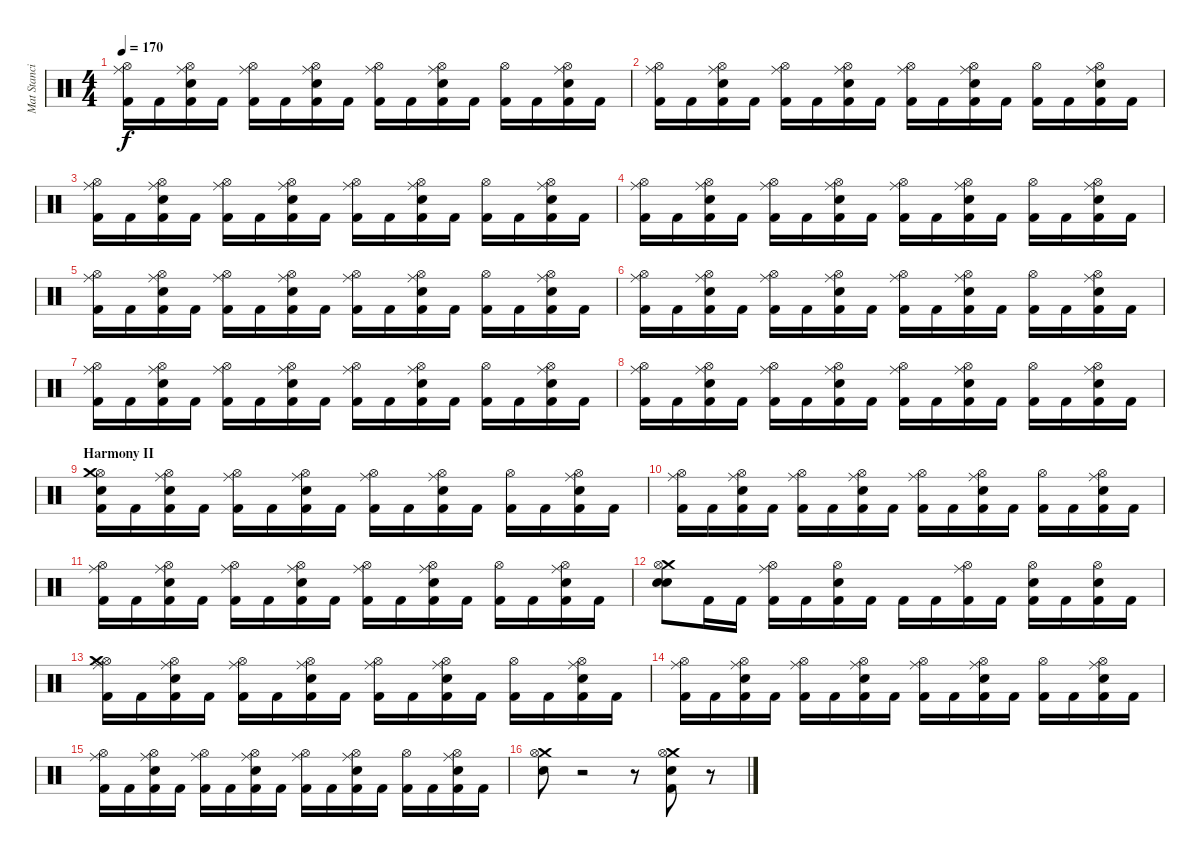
\track ("Mat Stancioiu" "Mat Stanci") {instrument percussion}
\staff {score}
\articulation defaults
\ts (4 4)
\tempo 170
\clef neutral
\ks c
("Hi-Hat (open)" "Kick (hit) 2" "Ride (middle)").16{dy f} "Kick (hit) 2".16 ("Electric Snare (hit)" "Hi-Hat (open)" "Kick (hit) 2" "Ride (middle)").16 "Kick (hit) 2".16 ("Hi-Hat (open)" "Kick (hit) 2" "Ride (middle)").16 "Kick (hit) 2".16 ("Electric Snare (hit)" "Hi-Hat (open)" "Kick (hit) 2" "Ride (middle)").16 "Kick (hit) 2".16 ("Hi-Hat (open)" "Kick (hit) 2" "Ride (middle)").16 "Kick (hit) 2".16 ("Electric Snare (hit)" "Hi-Hat (open)" "Kick (hit) 2" "Ride (middle)").16 "Kick (hit) 2".16 ("Hi-Hat (open)" "Kick (hit) 2").16 "Kick (hit) 2".16 ("Electric Snare (hit)" "Hi-Hat (open)" "Kick (hit) 2" "Ride (middle)").16 "Kick (hit) 2".16 |
("Hi-Hat (open)" "Kick (hit) 2" "Ride (middle)").16 "Kick (hit) 2".16 ("Electric Snare (hit)" "Hi-Hat (open)" "Kick (hit) 2" "Ride (middle)").16 "Kick (hit) 2".16 ("Hi-Hat (open)" "Kick (hit) 2" "Ride (middle)").16 "Kick (hit) 2".16 ("Electric Snare (hit)" "Hi-Hat (open)" "Kick (hit) 2" "Ride (middle)").16 "Kick (hit) 2".16 ("Hi-Hat (open)" "Kick (hit) 2" "Ride (middle)").16 "Kick (hit) 2".16 ("Electric Snare (hit)" "Hi-Hat (open)" "Kick (hit) 2" "Ride (middle)").16 "Kick (hit) 2".16 ("Hi-Hat (open)" "Kick (hit) 2").16 "Kick (hit) 2".16 ("Electric Snare (hit)" "Hi-Hat (open)" "Kick (hit) 2" "Ride (middle)").16 "Kick (hit) 2".16 |
("Hi-Hat (open)" "Kick (hit) 2" "Ride (middle)").16 "Kick (hit) 2".16 ("Electric Snare (hit)" "Hi-Hat (open)" "Kick (hit) 2" "Ride (middle)").16 "Kick (hit) 2".16 ("Hi-Hat (open)" "Kick (hit) 2" "Ride (middle)").16 "Kick (hit) 2".16 ("Electric Snare (hit)" "Hi-Hat (open)" "Kick (hit) 2" "Ride (middle)").16 "Kick (hit) 2".16 ("Hi-Hat (open)" "Kick (hit) 2" "Ride (middle)").16 "Kick (hit) 2".16 ("Electric Snare (hit)" "Hi-Hat (open)" "Kick (hit) 2" "Ride (middle)").16 "Kick (hit) 2".16 ("Hi-Hat (open)" "Kick (hit) 2").16 "Kick (hit) 2".16 ("Electric Snare (hit)" "Hi-Hat (open)" "Kick (hit) 2" "Ride (middle)").16 "Kick (hit) 2".16 |
("Hi-Hat (open)" "Kick (hit) 2" "Ride (middle)").16 "Kick (hit) 2".16 ("Electric Snare (hit)" "Hi-Hat (open)" "Kick (hit) 2" "Ride (middle)").16 "Kick (hit) 2".16 ("Hi-Hat (open)" "Kick (hit) 2" "Ride (middle)").16 "Kick (hit) 2".16 ("Electric Snare (hit)" "Hi-Hat (open)" "Kick (hit) 2" "Ride (middle)").16 "Kick (hit) 2".16 ("Hi-Hat (open)" "Kick (hit) 2" "Ride (middle)").16 "Kick (hit) 2".16 ("Electric Snare (hit)" "Hi-Hat (open)" "Kick (hit) 2" "Ride (middle)").16 "Kick (hit) 2".16 ("Hi-Hat (open)" "Kick (hit) 2").16 "Kick (hit) 2".16 ("Electric Snare (hit)" "Hi-Hat (open)" "Kick (hit) 2" "Ride (middle)").16 "Kick (hit) 2".16 |
("Hi-Hat (open)" "Kick (hit) 2" "Ride (middle)").16 "Kick (hit) 2".16 ("Electric Snare (hit)" "Hi-Hat (open)" "Kick (hit) 2" "Ride (middle)").16 "Kick (hit) 2".16 ("Hi-Hat (open)" "Kick (hit) 2" "Ride (middle)").16 "Kick (hit) 2".16 ("Electric Snare (hit)" "Hi-Hat (open)" "Kick (hit) 2" "Ride (middle)").16 "Kick (hit) 2".16 ("Hi-Hat (open)" "Kick (hit) 2" "Ride (middle)").16 "Kick (hit) 2".16 ("Electric Snare (hit)" "Hi-Hat (open)" "Kick (hit) 2" "Ride (middle)").16 "Kick (hit) 2".16 ("Hi-Hat (open)" "Kick (hit) 2").16 "Kick (hit) 2".16 ("Electric Snare (hit)" "Hi-Hat (open)" "Kick (hit) 2" "Ride (middle)").16 "Kick (hit) 2".16 |
("Hi-Hat (open)" "Kick (hit) 2" "Ride (middle)").16 "Kick (hit) 2".16 ("Electric Snare (hit)" "Hi-Hat (open)" "Kick (hit) 2" "Ride (middle)").16 "Kick (hit) 2".16 ("Hi-Hat (open)" "Kick (hit) 2" "Ride (middle)").16 "Kick (hit) 2".16 ("Electric Snare (hit)" "Hi-Hat (open)" "Kick (hit) 2" "Ride (middle)").16 "Kick (hit) 2".16 ("Hi-Hat (open)" "Kick (hit) 2" "Ride (middle)").16 "Kick (hit) 2".16 ("Electric Snare (hit)" "Hi-Hat (open)" "Kick (hit) 2" "Ride (middle)").16 "Kick (hit) 2".16 ("Hi-Hat (open)" "Kick (hit) 2").16 "Kick (hit) 2".16 ("Electric Snare (hit)" "Hi-Hat (open)" "Kick (hit) 2" "Ride (middle)").16 "Kick (hit) 2".16 |
("Hi-Hat (open)" "Kick (hit) 2" "Ride (middle)").16 "Kick (hit) 2".16 ("Electric Snare (hit)" "Hi-Hat (open)" "Kick (hit) 2" "Ride (middle)").16 "Kick (hit) 2".16 ("Hi-Hat (open)" "Kick (hit) 2" "Ride (middle)").16 "Kick (hit) 2".16 ("Electric Snare (hit)" "Hi-Hat (open)" "Kick (hit) 2" "Ride (middle)").16 "Kick (hit) 2".16 ("Hi-Hat (open)" "Kick (hit) 2" "Ride (middle)").16 "Kick (hit) 2".16 ("Electric Snare (hit)" "Hi-Hat (open)" "Kick (hit) 2" "Ride (middle)").16 "Kick (hit) 2".16 ("Hi-Hat (open)" "Kick (hit) 2").16 "Kick (hit) 2".16 ("Electric Snare (hit)" "Hi-Hat (open)" "Kick (hit) 2" "Ride (middle)").16 "Kick (hit) 2".16 |
("Hi-Hat (open)" "Kick (hit) 2" "Ride (middle)").16 "Kick (hit) 2".16 ("Electric Snare (hit)" "Hi-Hat (open)" "Kick (hit) 2" "Ride (middle)").16 "Kick (hit) 2".16 ("Hi-Hat (open)" "Kick (hit) 2" "Ride (middle)").16 "Kick (hit) 2".16 ("Electric Snare (hit)" "Hi-Hat (open)" "Kick (hit) 2" "Ride (middle)").16 "Kick (hit) 2".16 ("Hi-Hat (open)" "Kick (hit) 2" "Ride (middle)").16 "Kick (hit) 2".16 ("Electric Snare (hit)" "Hi-Hat (open)" "Kick (hit) 2" "Ride (middle)").16 "Kick (hit) 2".16 ("Hi-Hat (open)" "Kick (hit) 2").16 "Kick (hit) 2".16 ("Electric Snare (hit)" "Hi-Hat (open)" "Kick (hit) 2" "Ride (middle)").16 "Kick (hit) 2".16 |
\section ("" "Harmony II")
("Hi-Hat (open)" "Kick (hit) 2" "Snare (hit)" "Crash medium (hit)").16 "Kick (hit) 2".16 ("Electric Snare (hit)" "Hi-Hat (open)" "Kick (hit) 2" "Ride (middle)").16 "Kick (hit) 2".16 ("Hi-Hat (open)" "Kick (hit) 2" "Ride (middle)").16 "Kick (hit) 2".16 ("Electric Snare (hit)" "Hi-Hat (open)" "Kick (hit) 2" "Ride (middle)").16 "Kick (hit) 2".16 ("Hi-Hat (open)" "Kick (hit) 2" "Ride (middle)").16 "Kick (hit) 2".16 ("Electric Snare (hit)" "Hi-Hat (open)" "Kick (hit) 2" "Ride (middle)").16 "Kick (hit) 2".16 ("Hi-Hat (open)" "Kick (hit) 2").16 "Kick (hit) 2".16 ("Electric Snare (hit)" "Hi-Hat (open)" "Kick (hit) 2" "Ride (middle)").16 "Kick (hit) 2".16 |
("Hi-Hat (open)" "Kick (hit) 2" "Ride (middle)").16 "Kick (hit) 2".16 ("Electric Snare (hit)" "Hi-Hat (open)" "Kick (hit) 2" "Ride (middle)").16 "Kick (hit) 2".16 ("Hi-Hat (open)" "Kick (hit) 2" "Ride (middle)").16 "Kick (hit) 2".16 ("Electric Snare (hit)" "Hi-Hat (open)" "Kick (hit) 2" "Ride (middle)").16 "Kick (hit) 2".16 ("Hi-Hat (open)" "Kick (hit) 2" "Ride (middle)").16 "Kick (hit) 2".16 ("Electric Snare (hit)" "Hi-Hat (open)" "Kick (hit) 2" "Ride (middle)").16 "Kick (hit) 2".16 ("Hi-Hat (open)" "Kick (hit) 2").16 "Kick (hit) 2".16 ("Electric Snare (hit)" "Hi-Hat (open)" "Kick (hit) 2" "Ride (middle)").16 "Kick (hit) 2".16 |
("Hi-Hat (open)" "Kick (hit) 2" "Ride (middle)").16 "Kick (hit) 2".16 ("Electric Snare (hit)" "Hi-Hat (open)" "Kick (hit) 2" "Ride (middle)").16 "Kick (hit) 2".16 ("Hi-Hat (open)" "Kick (hit) 2" "Ride (middle)").16 "Kick (hit) 2".16 ("Electric Snare (hit)" "Hi-Hat (open)" "Kick (hit) 2" "Ride (middle)").16 "Kick (hit) 2".16 ("Hi-Hat (open)" "Kick (hit) 2" "Ride (middle)").16 "Kick (hit) 2".16 ("Electric Snare (hit)" "Hi-Hat (open)" "Kick (hit) 2" "Ride (middle)").16 "Kick (hit) 2".16 ("Hi-Hat (open)" "Kick (hit) 2").16 "Kick (hit) 2".16 ("Electric Snare (hit)" "Hi-Hat (open)" "Kick (hit) 2" "Ride (middle)").16 "Kick (hit) 2".16 |
("Crash medium (hit)" "Hi-Hat (open)" "Snare (hit)" "Electric Snare (hit)").8 "Kick (hit) 2".16 "Kick (hit) 2".16 ("Kick (hit) 2" "Hi-Hat (open)" "Ride (middle)").16 "Kick (hit) 2".16 ("Electric Snare (hit)" "Hi-Hat (open)" "Kick (hit) 2").16 "Kick (hit) 2".16 "Kick (hit) 2".16 "Kick (hit) 2".16 ("Kick (hit) 2" "Hi-Hat (open)" "Ride (middle)").16 "Kick (hit) 2".16 ("Electric Snare (hit)" "Hi-Hat (open)" "Kick (hit) 2").16 "Kick (hit) 2".16 ("Electric Snare (hit)" "Hi-Hat (open)" "Kick (hit) 2").16 "Kick (hit) 2".16 |
("Hi-Hat (open)" "Kick (hit) 2" "Crash medium (hit)" "Ride (middle)").16 "Kick (hit) 2".16 ("Electric Snare (hit)" "Hi-Hat (open)" "Kick (hit) 2" "Ride (middle)").16 "Kick (hit) 2".16 ("Hi-Hat (open)" "Kick (hit) 2" "Ride (middle)").16 "Kick (hit) 2".16 ("Electric Snare (hit)" "Hi-Hat (open)" "Kick (hit) 2" "Ride (middle)").16 "Kick (hit) 2".16 ("Hi-Hat (open)" "Kick (hit) 2" "Ride (middle)").16 "Kick (hit) 2".16 ("Electric Snare (hit)" "Hi-Hat (open)" "Kick (hit) 2" "Ride (middle)").16 "Kick (hit) 2".16 ("Hi-Hat (open)" "Kick (hit) 2").16 "Kick (hit) 2".16 ("Electric Snare (hit)" "Hi-Hat (open)" "Kick (hit) 2" "Ride (middle)").16 "Kick (hit) 2".16 |
("Hi-Hat (open)" "Kick (hit) 2" "Ride (middle)").16 "Kick (hit) 2".16 ("Electric Snare (hit)" "Hi-Hat (open)" "Kick (hit) 2" "Ride (middle)").16 "Kick (hit) 2".16 ("Hi-Hat (open)" "Kick (hit) 2" "Ride (middle)").16 "Kick (hit) 2".16 ("Electric Snare (hit)" "Hi-Hat (open)" "Kick (hit) 2" "Ride (middle)").16 "Kick (hit) 2".16 ("Hi-Hat (open)" "Kick (hit) 2" "Ride (middle)").16 "Kick (hit) 2".16 ("Electric Snare (hit)" "Hi-Hat (open)" "Kick (hit) 2" "Ride (middle)").16 "Kick (hit) 2".16 ("Hi-Hat (open)" "Kick (hit) 2").16 "Kick (hit) 2".16 ("Electric Snare (hit)" "Hi-Hat (open)" "Kick (hit) 2" "Ride (middle)").16 "Kick (hit) 2".16 |
("Hi-Hat (open)" "Kick (hit) 2" "Ride (middle)").16 "Kick (hit) 2".16 ("Electric Snare (hit)" "Hi-Hat (open)" "Kick (hit) 2" "Ride (middle)").16 "Kick (hit) 2".16 ("Hi-Hat (open)" "Kick (hit) 2" "Ride (middle)").16 "Kick (hit) 2".16 ("Electric Snare (hit)" "Hi-Hat (open)" "Kick (hit) 2" "Ride (middle)").16 "Kick (hit) 2".16 ("Hi-Hat (open)" "Kick (hit) 2" "Ride (middle)").16 "Kick (hit) 2".16 ("Electric Snare (hit)" "Hi-Hat (open)" "Kick (hit) 2" "Ride (middle)").16 "Kick (hit) 2".16 ("Hi-Hat (open)" "Kick (hit) 2").16 "Kick (hit) 2".16 ("Electric Snare (hit)" "Hi-Hat (open)" "Kick (hit) 2" "Ride (middle)").16 "Kick (hit) 2".16 |
("Crash medium (hit)" "Hi-Hat (open)" "Snare (hit)").8 r.2 r.8 ("Crash medium (hit)" "Hi-Hat (open)" "Kick (hit) 2" "Electric Snare (hit)").8 r.8
